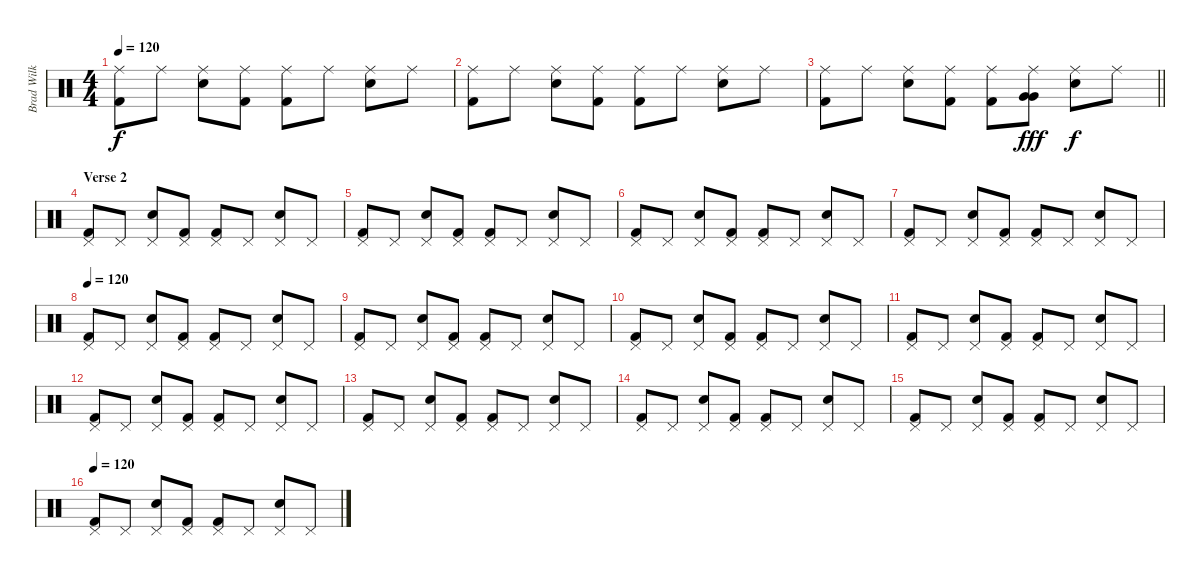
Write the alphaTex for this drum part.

\track ("Brad Wilk" "Brad Wilk") {instrument percussion}
\staff {score}
\articulation defaults
\ts (4 4)
\tempo 120
\clef neutral
\ks c
("Ride (middle)" "Kick (hit) 2").8{dy f} "Ride (middle)".8 ("Ride (middle)" "Electric Snare (hit)").8 ("Ride (middle)" "Kick (hit) 2").8 ("Ride (middle)" "Kick (hit) 2").8 "Ride (middle)".8 ("Ride (middle)" "Electric Snare (hit)").8 "Ride (middle)".8 |
("Ride (middle)" "Kick (hit) 2").8 "Ride (middle)".8 ("Ride (middle)" "Electric Snare (hit)").8 ("Ride (middle)" "Kick (hit) 2").8 ("Ride (middle)" "Kick (hit) 2").8 "Ride (middle)".8 ("Ride (middle)" "Electric Snare (hit)").8 "Ride (middle)".8 |
\barLineRight lightlight
("Ride (middle)" "Kick (hit) 2").8 "Ride (middle)".8 ("Ride (middle)" "Electric Snare (hit)").8 ("Ride (middle)" "Kick (hit) 2").8 ("Ride (middle)" "Kick (hit) 2").8 ("Ride (middle)" "Very Low Tom (hit)" "Very Low Tom (hit)").8{dy fff} ("Ride (middle)" "Electric Snare (hit)").8{dy f} "Ride (middle)".8 |
\section ("" "Verse 2")
("Pedal Hi-Hat (hit)" "Kick (hit) 2").8 "Pedal Hi-Hat (hit)".8 ("Pedal Hi-Hat (hit)" "Electric Snare (hit)").8 ("Pedal Hi-Hat (hit)" "Kick (hit) 2").8 ("Pedal Hi-Hat (hit)" "Kick (hit) 2").8 "Pedal Hi-Hat (hit)".8 ("Pedal Hi-Hat (hit)" "Electric Snare (hit)").8 "Pedal Hi-Hat (hit)".8 |
("Pedal Hi-Hat (hit)" "Kick (hit) 2").8 "Pedal Hi-Hat (hit)".8 ("Pedal Hi-Hat (hit)" "Electric Snare (hit)").8 ("Pedal Hi-Hat (hit)" "Kick (hit) 2").8 ("Pedal Hi-Hat (hit)" "Kick (hit) 2").8 "Pedal Hi-Hat (hit)".8 ("Pedal Hi-Hat (hit)" "Electric Snare (hit)").8 "Pedal Hi-Hat (hit)".8 |
("Pedal Hi-Hat (hit)" "Kick (hit) 2").8 "Pedal Hi-Hat (hit)".8 ("Pedal Hi-Hat (hit)" "Electric Snare (hit)").8 ("Pedal Hi-Hat (hit)" "Kick (hit) 2").8 ("Pedal Hi-Hat (hit)" "Kick (hit) 2").8 "Pedal Hi-Hat (hit)".8 ("Pedal Hi-Hat (hit)" "Electric Snare (hit)").8 "Pedal Hi-Hat (hit)".8 |
("Pedal Hi-Hat (hit)" "Kick (hit) 2").8 "Pedal Hi-Hat (hit)".8 ("Pedal Hi-Hat (hit)" "Electric Snare (hit)").8 ("Pedal Hi-Hat (hit)" "Kick (hit) 2").8 ("Pedal Hi-Hat (hit)" "Kick (hit) 2").8 "Pedal Hi-Hat (hit)".8 ("Pedal Hi-Hat (hit)" "Electric Snare (hit)").8 "Pedal Hi-Hat (hit)".8 |
\tempo 120
("Pedal Hi-Hat (hit)" "Kick (hit) 2").8 "Pedal Hi-Hat (hit)".8 ("Pedal Hi-Hat (hit)" "Electric Snare (hit)").8 ("Pedal Hi-Hat (hit)" "Kick (hit) 2").8 ("Pedal Hi-Hat (hit)" "Kick (hit) 2").8 "Pedal Hi-Hat (hit)".8 ("Pedal Hi-Hat (hit)" "Electric Snare (hit)").8 "Pedal Hi-Hat (hit)".8 |
("Pedal Hi-Hat (hit)" "Kick (hit) 2").8 "Pedal Hi-Hat (hit)".8 ("Pedal Hi-Hat (hit)" "Electric Snare (hit)").8 ("Pedal Hi-Hat (hit)" "Kick (hit) 2").8 ("Pedal Hi-Hat (hit)" "Kick (hit) 2").8 "Pedal Hi-Hat (hit)".8 ("Pedal Hi-Hat (hit)" "Electric Snare (hit)").8 "Pedal Hi-Hat (hit)".8 |
("Pedal Hi-Hat (hit)" "Kick (hit) 2").8 "Pedal Hi-Hat (hit)".8 ("Pedal Hi-Hat (hit)" "Electric Snare (hit)").8 ("Pedal Hi-Hat (hit)" "Kick (hit) 2").8 ("Pedal Hi-Hat (hit)" "Kick (hit) 2").8 "Pedal Hi-Hat (hit)".8 ("Pedal Hi-Hat (hit)" "Electric Snare (hit)").8 "Pedal Hi-Hat (hit)".8 |
("Pedal Hi-Hat (hit)" "Kick (hit) 2").8 "Pedal Hi-Hat (hit)".8 ("Pedal Hi-Hat (hit)" "Electric Snare (hit)").8 ("Pedal Hi-Hat (hit)" "Kick (hit) 2").8 ("Pedal Hi-Hat (hit)" "Kick (hit) 2").8 "Pedal Hi-Hat (hit)".8 ("Pedal Hi-Hat (hit)" "Electric Snare (hit)").8 "Pedal Hi-Hat (hit)".8 |
("Pedal Hi-Hat (hit)" "Kick (hit) 2").8 "Pedal Hi-Hat (hit)".8 ("Pedal Hi-Hat (hit)" "Electric Snare (hit)").8 ("Pedal Hi-Hat (hit)" "Kick (hit) 2").8 ("Pedal Hi-Hat (hit)" "Kick (hit) 2").8 "Pedal Hi-Hat (hit)".8 ("Pedal Hi-Hat (hit)" "Electric Snare (hit)").8 "Pedal Hi-Hat (hit)".8 |
("Pedal Hi-Hat (hit)" "Kick (hit) 2").8 "Pedal Hi-Hat (hit)".8 ("Pedal Hi-Hat (hit)" "Electric Snare (hit)").8 ("Pedal Hi-Hat (hit)" "Kick (hit) 2").8 ("Pedal Hi-Hat (hit)" "Kick (hit) 2").8 "Pedal Hi-Hat (hit)".8 ("Pedal Hi-Hat (hit)" "Electric Snare (hit)").8 "Pedal Hi-Hat (hit)".8 |
("Pedal Hi-Hat (hit)" "Kick (hit) 2").8 "Pedal Hi-Hat (hit)".8 ("Pedal Hi-Hat (hit)" "Electric Snare (hit)").8 ("Pedal Hi-Hat (hit)" "Kick (hit) 2").8 ("Pedal Hi-Hat (hit)" "Kick (hit) 2").8 "Pedal Hi-Hat (hit)".8 ("Pedal Hi-Hat (hit)" "Electric Snare (hit)").8 "Pedal Hi-Hat (hit)".8 |
("Pedal Hi-Hat (hit)" "Kick (hit) 2").8 "Pedal Hi-Hat (hit)".8 ("Pedal Hi-Hat (hit)" "Electric Snare (hit)").8 ("Pedal Hi-Hat (hit)" "Kick (hit) 2").8 ("Pedal Hi-Hat (hit)" "Kick (hit) 2").8 "Pedal Hi-Hat (hit)".8 ("Pedal Hi-Hat (hit)" "Electric Snare (hit)").8 "Pedal Hi-Hat (hit)".8 |
\tempo 120
("Pedal Hi-Hat (hit)" "Kick (hit) 2").8 "Pedal Hi-Hat (hit)".8 ("Pedal Hi-Hat (hit)" "Electric Snare (hit)").8 ("Pedal Hi-Hat (hit)" "Kick (hit) 2").8 ("Pedal Hi-Hat (hit)" "Kick (hit) 2").8 "Pedal Hi-Hat (hit)".8 ("Pedal Hi-Hat (hit)" "Electric Snare (hit)").8 "Pedal Hi-Hat (hit)".8
